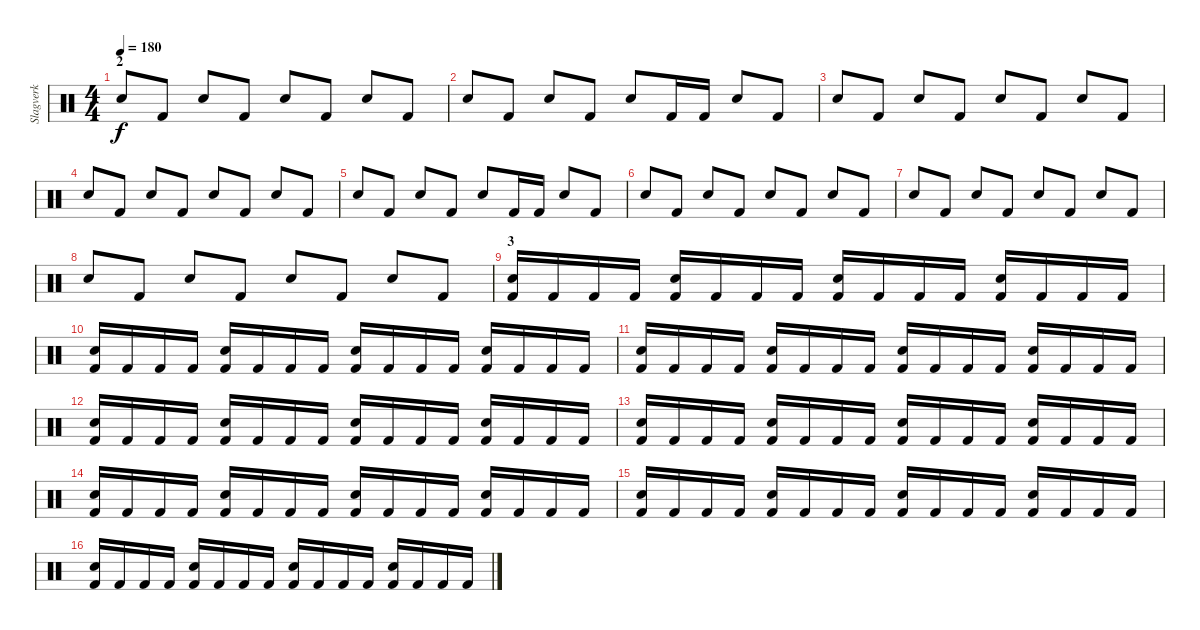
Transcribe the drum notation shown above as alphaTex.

\track ("Slagverk" "Slagverk") {instrument percussion}
\staff {score}
\articulation defaults
\ts (4 4)
\section ("" "2")
\tempo 180
\clef neutral
\ks c "Electric Snare (hit)".8{dy f} "Kick (hit) 2".8 "Electric Snare (hit)".8 "Kick (hit) 2".8 "Electric Snare (hit)".8 "Kick (hit) 2".8 "Electric Snare (hit)".8 "Kick (hit) 2".8
|
"Electric Snare (hit)".8 "Kick (hit) 2".8 "Electric Snare (hit)".8 "Kick (hit) 2".8 "Electric Snare (hit)".8 "Kick (hit) 2".16 "Kick (hit) 2".16 "Electric Snare (hit)".8 "Kick (hit) 2".8 |
"Electric Snare (hit)".8 "Kick (hit) 2".8 "Electric Snare (hit)".8 "Kick (hit) 2".8 "Electric Snare (hit)".8 "Kick (hit) 2".8 "Electric Snare (hit)".8 "Kick (hit) 2".8 |
"Electric Snare (hit)".8 "Kick (hit) 2".8 "Electric Snare (hit)".8 "Kick (hit) 2".8 "Electric Snare (hit)".8 "Kick (hit) 2".8 "Electric Snare (hit)".8 "Kick (hit) 2".8 |
"Electric Snare (hit)".8 "Kick (hit) 2".8 "Electric Snare (hit)".8 "Kick (hit) 2".8 "Electric Snare (hit)".8 "Kick (hit) 2".16 "Kick (hit) 2".16 "Electric Snare (hit)".8 "Kick (hit) 2".8 |
"Electric Snare (hit)".8 "Kick (hit) 2".8 "Electric Snare (hit)".8 "Kick (hit) 2".8 "Electric Snare (hit)".8 "Kick (hit) 2".8 "Electric Snare (hit)".8 "Kick (hit) 2".8 |
"Electric Snare (hit)".8 "Kick (hit) 2".8 "Electric Snare (hit)".8 "Kick (hit) 2".8 "Electric Snare (hit)".8 "Kick (hit) 2".8 "Electric Snare (hit)".8 "Kick (hit) 2".8 |
"Electric Snare (hit)".8 "Kick (hit) 2".8 "Electric Snare (hit)".8 "Kick (hit) 2".8 "Electric Snare (hit)".8 "Kick (hit) 2".8 "Electric Snare (hit)".8 "Kick (hit) 2".8 |
\section ("" "3")
("Electric Snare (hit)" "Kick (hit) 2").16 "Kick (hit) 2".16 "Kick (hit) 2".16 "Kick (hit) 2".16 ("Electric Snare (hit)" "Kick (hit) 2").16 "Kick (hit) 2".16 "Kick (hit) 2".16 "Kick (hit) 2".16 ("Electric Snare (hit)" "Kick (hit) 2").16 "Kick (hit) 2".16 "Kick (hit) 2".16 "Kick (hit) 2".16 ("Electric Snare (hit)" "Kick (hit) 2").16 "Kick (hit) 2".16 "Kick (hit) 2".16 "Kick (hit) 2".16 |
("Electric Snare (hit)" "Kick (hit) 2").16 "Kick (hit) 2".16 "Kick (hit) 2".16 "Kick (hit) 2".16 ("Electric Snare (hit)" "Kick (hit) 2").16 "Kick (hit) 2".16 "Kick (hit) 2".16 "Kick (hit) 2".16 ("Electric Snare (hit)" "Kick (hit) 2").16 "Kick (hit) 2".16 "Kick (hit) 2".16 "Kick (hit) 2".16 ("Electric Snare (hit)" "Kick (hit) 2").16 "Kick (hit) 2".16 "Kick (hit) 2".16 "Kick (hit) 2".16 |
("Electric Snare (hit)" "Kick (hit) 2").16 "Kick (hit) 2".16 "Kick (hit) 2".16 "Kick (hit) 2".16 ("Electric Snare (hit)" "Kick (hit) 2").16 "Kick (hit) 2".16 "Kick (hit) 2".16 "Kick (hit) 2".16 ("Electric Snare (hit)" "Kick (hit) 2").16 "Kick (hit) 2".16 "Kick (hit) 2".16 "Kick (hit) 2".16 ("Electric Snare (hit)" "Kick (hit) 2").16 "Kick (hit) 2".16 "Kick (hit) 2".16 "Kick (hit) 2".16 |
("Electric Snare (hit)" "Kick (hit) 2").16 "Kick (hit) 2".16 "Kick (hit) 2".16 "Kick (hit) 2".16 ("Electric Snare (hit)" "Kick (hit) 2").16 "Kick (hit) 2".16 "Kick (hit) 2".16 "Kick (hit) 2".16 ("Electric Snare (hit)" "Kick (hit) 2").16 "Kick (hit) 2".16 "Kick (hit) 2".16 "Kick (hit) 2".16 ("Electric Snare (hit)" "Kick (hit) 2").16 "Kick (hit) 2".16 "Kick (hit) 2".16 "Kick (hit) 2".16 |
("Electric Snare (hit)" "Kick (hit) 2").16 "Kick (hit) 2".16 "Kick (hit) 2".16 "Kick (hit) 2".16 ("Electric Snare (hit)" "Kick (hit) 2").16 "Kick (hit) 2".16 "Kick (hit) 2".16 "Kick (hit) 2".16 ("Electric Snare (hit)" "Kick (hit) 2").16 "Kick (hit) 2".16 "Kick (hit) 2".16 "Kick (hit) 2".16 ("Electric Snare (hit)" "Kick (hit) 2").16 "Kick (hit) 2".16 "Kick (hit) 2".16 "Kick (hit) 2".16 |
("Electric Snare (hit)" "Kick (hit) 2").16 "Kick (hit) 2".16 "Kick (hit) 2".16 "Kick (hit) 2".16 ("Electric Snare (hit)" "Kick (hit) 2").16 "Kick (hit) 2".16 "Kick (hit) 2".16 "Kick (hit) 2".16 ("Electric Snare (hit)" "Kick (hit) 2").16 "Kick (hit) 2".16 "Kick (hit) 2".16 "Kick (hit) 2".16 ("Electric Snare (hit)" "Kick (hit) 2").16 "Kick (hit) 2".16 "Kick (hit) 2".16 "Kick (hit) 2".16 |
("Electric Snare (hit)" "Kick (hit) 2").16 "Kick (hit) 2".16 "Kick (hit) 2".16 "Kick (hit) 2".16 ("Electric Snare (hit)" "Kick (hit) 2").16 "Kick (hit) 2".16 "Kick (hit) 2".16 "Kick (hit) 2".16 ("Electric Snare (hit)" "Kick (hit) 2").16 "Kick (hit) 2".16 "Kick (hit) 2".16 "Kick (hit) 2".16 ("Electric Snare (hit)" "Kick (hit) 2").16 "Kick (hit) 2".16 "Kick (hit) 2".16 "Kick (hit) 2".16 |
("Electric Snare (hit)" "Kick (hit) 2").16 "Kick (hit) 2".16 "Kick (hit) 2".16 "Kick (hit) 2".16 ("Electric Snare (hit)" "Kick (hit) 2").16 "Kick (hit) 2".16 "Kick (hit) 2".16 "Kick (hit) 2".16 ("Electric Snare (hit)" "Kick (hit) 2").16 "Kick (hit) 2".16 "Kick (hit) 2".16 "Kick (hit) 2".16 ("Electric Snare (hit)" "Kick (hit) 2").16 "Kick (hit) 2".16 "Kick (hit) 2".16 "Kick (hit) 2".16
